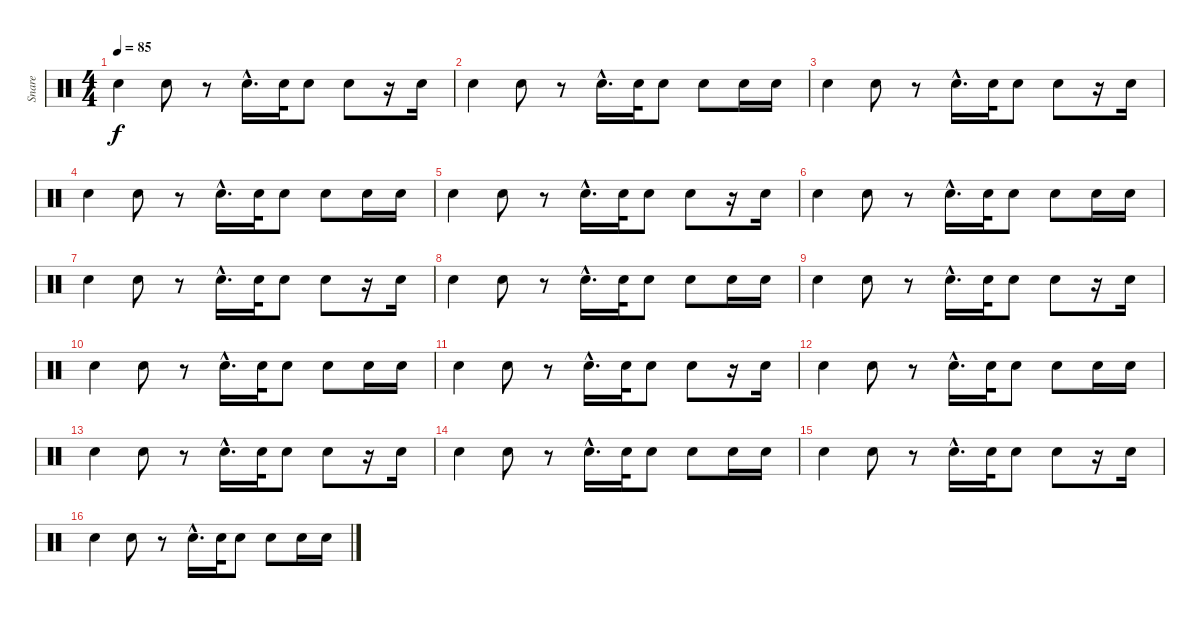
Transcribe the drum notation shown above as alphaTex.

\track ("Snare" "Snare") {instrument percussion}
\staff {score}
\articulation defaults
\ts (4 4)
\tempo 85
\clef neutral
\ks c "Electric Snare (hit)".4{dy f} "Electric Snare (hit)".8
r.8 "Electric Snare (hit)"{hac}.16{d} "Electric Snare (hit)".32 "Electric Snare (hit)".8 "Electric Snare (hit)".8 r.16 "Electric Snare (hit)".16 |
"Electric Snare (hit)".4 "Electric Snare (hit)".8 r.8 "Electric Snare (hit)"{hac}.16{d} "Electric Snare (hit)".32 "Electric Snare (hit)".8 "Electric Snare (hit)".8 "Electric Snare (hit)".16 "Electric Snare (hit)".16 |
"Electric Snare (hit)".4 "Electric Snare (hit)".8 r.8 "Electric Snare (hit)"{hac}.16{d} "Electric Snare (hit)".32 "Electric Snare (hit)".8 "Electric Snare (hit)".8 r.16 "Electric Snare (hit)".16 |
"Electric Snare (hit)".4 "Electric Snare (hit)".8 r.8 "Electric Snare (hit)"{hac}.16{d} "Electric Snare (hit)".32 "Electric Snare (hit)".8 "Electric Snare (hit)".8 "Electric Snare (hit)".16 "Electric Snare (hit)".16 |
"Electric Snare (hit)".4 "Electric Snare (hit)".8 r.8 "Electric Snare (hit)"{hac}.16{d} "Electric Snare (hit)".32 "Electric Snare (hit)".8 "Electric Snare (hit)".8 r.16 "Electric Snare (hit)".16 |
"Electric Snare (hit)".4 "Electric Snare (hit)".8 r.8 "Electric Snare (hit)"{hac}.16{d} "Electric Snare (hit)".32 "Electric Snare (hit)".8 "Electric Snare (hit)".8 "Electric Snare (hit)".16 "Electric Snare (hit)".16 |
"Electric Snare (hit)".4 "Electric Snare (hit)".8 r.8 "Electric Snare (hit)"{hac}.16{d} "Electric Snare (hit)".32 "Electric Snare (hit)".8 "Electric Snare (hit)".8 r.16 "Electric Snare (hit)".16 |
"Electric Snare (hit)".4 "Electric Snare (hit)".8 r.8 "Electric Snare (hit)"{hac}.16{d} "Electric Snare (hit)".32 "Electric Snare (hit)".8 "Electric Snare (hit)".8 "Electric Snare (hit)".16 "Electric Snare (hit)".16 |
"Electric Snare (hit)".4 "Electric Snare (hit)".8 r.8 "Electric Snare (hit)"{hac}.16{d} "Electric Snare (hit)".32 "Electric Snare (hit)".8 "Electric Snare (hit)".8 r.16 "Electric Snare (hit)".16 |
"Electric Snare (hit)".4 "Electric Snare (hit)".8 r.8 "Electric Snare (hit)"{hac}.16{d} "Electric Snare (hit)".32 "Electric Snare (hit)".8 "Electric Snare (hit)".8 "Electric Snare (hit)".16 "Electric Snare (hit)".16 |
"Electric Snare (hit)".4 "Electric Snare (hit)".8 r.8 "Electric Snare (hit)"{hac}.16{d} "Electric Snare (hit)".32 "Electric Snare (hit)".8 "Electric Snare (hit)".8 r.16 "Electric Snare (hit)".16 |
"Electric Snare (hit)".4 "Electric Snare (hit)".8 r.8 "Electric Snare (hit)"{hac}.16{d} "Electric Snare (hit)".32 "Electric Snare (hit)".8 "Electric Snare (hit)".8 "Electric Snare (hit)".16 "Electric Snare (hit)".16 |
"Electric Snare (hit)".4 "Electric Snare (hit)".8 r.8 "Electric Snare (hit)"{hac}.16{d} "Electric Snare (hit)".32 "Electric Snare (hit)".8 "Electric Snare (hit)".8 r.16 "Electric Snare (hit)".16 |
"Electric Snare (hit)".4 "Electric Snare (hit)".8 r.8 "Electric Snare (hit)"{hac}.16{d} "Electric Snare (hit)".32 "Electric Snare (hit)".8 "Electric Snare (hit)".8 "Electric Snare (hit)".16 "Electric Snare (hit)".16 |
"Electric Snare (hit)".4 "Electric Snare (hit)".8 r.8 "Electric Snare (hit)"{hac}.16{d} "Electric Snare (hit)".32 "Electric Snare (hit)".8 "Electric Snare (hit)".8 r.16 "Electric Snare (hit)".16 |
"Electric Snare (hit)".4 "Electric Snare (hit)".8 r.8 "Electric Snare (hit)"{hac}.16{d} "Electric Snare (hit)".32 "Electric Snare (hit)".8 "Electric Snare (hit)".8 "Electric Snare (hit)".16 "Electric Snare (hit)".16
